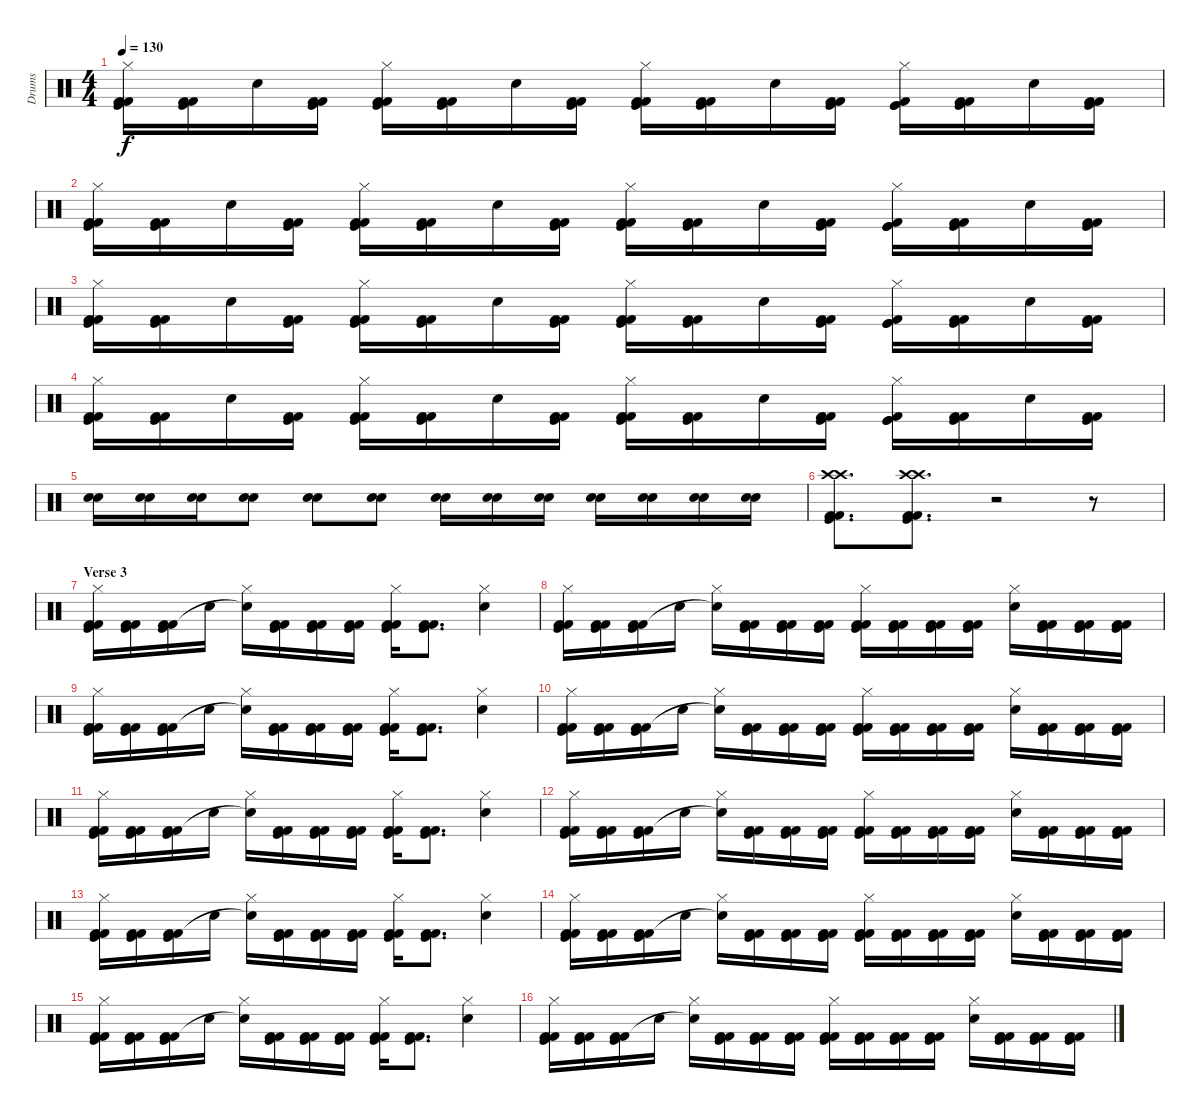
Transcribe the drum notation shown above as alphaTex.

\track ("Drums" "Drums") {instrument percussion}
\staff {score}
\articulation defaults
\ts (4 4)
\tempo 130
\clef neutral
\ks c
("Hi-Hat (closed)" "Kick (hit)" "Kick (hit) 2" "Kick (hit) 2").16{dy f} ("Kick (hit)" "Kick (hit) 2" "Kick (hit) 2").16 "Electric Snare (hit)".16 ("Kick (hit)" "Kick (hit) 2" "Kick (hit) 2").16 ("Hi-Hat (closed)" "Kick (hit)" "Kick (hit) 2" "Kick (hit) 2").16 ("Kick (hit)" "Kick (hit) 2" "Kick (hit) 2").16 "Electric Snare (hit)".16 ("Kick (hit)" "Kick (hit) 2" "Kick (hit) 2").16 ("Hi-Hat (closed)" "Kick (hit)" "Kick (hit) 2" "Kick (hit) 2").16 ("Kick (hit)" "Kick (hit) 2" "Kick (hit) 2").16 "Electric Snare (hit)".16 ("Kick (hit)" "Kick (hit) 2" "Kick (hit) 2").16 ("Hi-Hat (closed)" "Kick (hit)" "Kick (hit)" "Kick (hit) 2").16 ("Kick (hit)" "Kick (hit) 2" "Kick (hit) 2").16 "Electric Snare (hit)".16 ("Kick (hit)" "Kick (hit) 2" "Kick (hit) 2").16 |
("Hi-Hat (closed)" "Kick (hit)" "Kick (hit) 2" "Kick (hit) 2").16 ("Kick (hit)" "Kick (hit) 2" "Kick (hit) 2").16 "Electric Snare (hit)".16 ("Kick (hit)" "Kick (hit) 2" "Kick (hit) 2").16 ("Hi-Hat (closed)" "Kick (hit)" "Kick (hit) 2" "Kick (hit) 2").16 ("Kick (hit)" "Kick (hit) 2" "Kick (hit) 2").16 "Electric Snare (hit)".16 ("Kick (hit)" "Kick (hit) 2" "Kick (hit) 2").16 ("Hi-Hat (closed)" "Kick (hit)" "Kick (hit) 2" "Kick (hit) 2").16 ("Kick (hit)" "Kick (hit) 2" "Kick (hit) 2").16 "Electric Snare (hit)".16 ("Kick (hit)" "Kick (hit) 2" "Kick (hit) 2").16 ("Hi-Hat (closed)" "Kick (hit)" "Kick (hit)" "Kick (hit) 2").16 ("Kick (hit)" "Kick (hit) 2" "Kick (hit) 2").16 "Electric Snare (hit)".16 ("Kick (hit)" "Kick (hit) 2" "Kick (hit) 2").16 |
("Hi-Hat (closed)" "Kick (hit)" "Kick (hit) 2" "Kick (hit) 2").16 ("Kick (hit)" "Kick (hit) 2" "Kick (hit) 2").16 "Electric Snare (hit)".16 ("Kick (hit)" "Kick (hit) 2" "Kick (hit) 2").16 ("Hi-Hat (closed)" "Kick (hit)" "Kick (hit) 2" "Kick (hit) 2").16 ("Kick (hit)" "Kick (hit) 2" "Kick (hit) 2").16 "Electric Snare (hit)".16 ("Kick (hit)" "Kick (hit) 2" "Kick (hit) 2").16 ("Hi-Hat (closed)" "Kick (hit)" "Kick (hit) 2" "Kick (hit) 2").16 ("Kick (hit)" "Kick (hit) 2" "Kick (hit) 2").16 "Electric Snare (hit)".16 ("Kick (hit)" "Kick (hit) 2" "Kick (hit) 2").16 ("Hi-Hat (closed)" "Kick (hit)" "Kick (hit)" "Kick (hit) 2").16 ("Kick (hit)" "Kick (hit) 2" "Kick (hit) 2").16 "Electric Snare (hit)".16 ("Kick (hit)" "Kick (hit) 2" "Kick (hit) 2").16 |
("Hi-Hat (closed)" "Kick (hit)" "Kick (hit) 2" "Kick (hit) 2").16 ("Kick (hit)" "Kick (hit) 2" "Kick (hit) 2").16 "Electric Snare (hit)".16 ("Kick (hit)" "Kick (hit) 2" "Kick (hit) 2").16 ("Hi-Hat (closed)" "Kick (hit)" "Kick (hit) 2" "Kick (hit) 2").16 ("Kick (hit)" "Kick (hit) 2" "Kick (hit) 2").16 "Electric Snare (hit)".16 ("Kick (hit)" "Kick (hit) 2" "Kick (hit) 2").16 ("Hi-Hat (closed)" "Kick (hit)" "Kick (hit) 2" "Kick (hit) 2").16 ("Kick (hit)" "Kick (hit) 2" "Kick (hit) 2").16 "Electric Snare (hit)".16 ("Kick (hit)" "Kick (hit) 2" "Kick (hit) 2").16 ("Hi-Hat (closed)" "Kick (hit)" "Kick (hit)" "Kick (hit) 2").16 ("Kick (hit)" "Kick (hit) 2" "Kick (hit) 2").16 "Electric Snare (hit)".16 ("Kick (hit)" "Kick (hit) 2" "Kick (hit) 2").16 |
("Electric Snare (hit)" "Electric Snare (hit)").16 ("Electric Snare (hit)" "Electric Snare (hit)").16 ("Electric Snare (hit)" "Electric Snare (hit)").16 ("Electric Snare (hit)" "Electric Snare (hit)").8 ("Electric Snare (hit)" "Electric Snare (hit)").8 ("Electric Snare (hit)" "Electric Snare (hit)").8 ("Electric Snare (hit)" "Electric Snare (hit)").16 ("Electric Snare (hit)" "Electric Snare (hit)").16 ("Electric Snare (hit)" "Electric Snare (hit)").16 ("Electric Snare (hit)" "Electric Snare (hit)").16 ("Electric Snare (hit)" "Electric Snare (hit)").16 ("Electric Snare (hit)" "Electric Snare (hit)").16 ("Electric Snare (hit)" "Electric Snare (hit)").16 |
("Crash high (hit)" "Crash high (hit)" "Kick (hit)" "Kick (hit) 2" "Kick (hit) 2").8{d} ("Crash high (hit)" "Crash high (hit)" "Kick (hit)" "Kick (hit) 2" "Kick (hit) 2").8{d} r.2 r.8 |
\section ("" "Verse 3")
("Hi-Hat (closed)" "Kick (hit)" "Kick (hit) 2" "Kick (hit) 2").16 ("Kick (hit)" "Kick (hit) 2" "Kick (hit) 2").16 ("Kick (hit)" "Kick (hit) 2" "Kick (hit) 2").16 "Electric Snare (hit)".16 ("Hi-Hat (closed)" "Snare (hit)"{t}).16 ("Kick (hit)" "Kick (hit) 2" "Kick (hit) 2").16 ("Kick (hit)" "Kick (hit) 2" "Kick (hit) 2").16 ("Kick (hit)" "Kick (hit) 2" "Kick (hit) 2").16 ("Hi-Hat (closed)" "Kick (hit)" "Kick (hit) 2" "Kick (hit) 2").16 ("Kick (hit)" "Kick (hit) 2" "Kick (hit) 2").8{d} ("Hi-Hat (closed)" "Electric Snare (hit)").4 |
("Hi-Hat (closed)" "Kick (hit)" "Kick (hit) 2" "Kick (hit) 2").16 ("Kick (hit)" "Kick (hit) 2" "Kick (hit) 2").16 ("Kick (hit)" "Kick (hit) 2" "Kick (hit) 2").16 "Electric Snare (hit)".16 ("Hi-Hat (closed)" "Snare (hit)"{t}).16 ("Kick (hit)" "Kick (hit) 2" "Kick (hit) 2").16 ("Kick (hit)" "Kick (hit) 2" "Kick (hit) 2").16 ("Kick (hit)" "Kick (hit) 2" "Kick (hit) 2").16 ("Hi-Hat (closed)" "Kick (hit)" "Kick (hit) 2" "Kick (hit) 2").16 ("Kick (hit)" "Kick (hit) 2" "Kick (hit) 2").16 ("Kick (hit)" "Kick (hit) 2" "Kick (hit) 2").16 ("Kick (hit)" "Kick (hit) 2" "Kick (hit) 2").16 ("Hi-Hat (closed)" "Electric Snare (hit)").16 ("Kick (hit)" "Kick (hit) 2" "Kick (hit) 2").16 ("Kick (hit)" "Kick (hit) 2" "Kick (hit) 2").16 ("Kick (hit)" "Kick (hit) 2" "Kick (hit) 2").16 |
("Hi-Hat (closed)" "Kick (hit)" "Kick (hit) 2" "Kick (hit) 2").16 ("Kick (hit)" "Kick (hit) 2" "Kick (hit) 2").16 ("Kick (hit)" "Kick (hit) 2" "Kick (hit) 2").16 "Electric Snare (hit)".16 ("Hi-Hat (closed)" "Snare (hit)"{t}).16 ("Kick (hit)" "Kick (hit) 2" "Kick (hit) 2").16 ("Kick (hit)" "Kick (hit) 2" "Kick (hit) 2").16 ("Kick (hit)" "Kick (hit) 2" "Kick (hit) 2").16 ("Hi-Hat (closed)" "Kick (hit)" "Kick (hit) 2" "Kick (hit) 2").16 ("Kick (hit)" "Kick (hit) 2" "Kick (hit) 2").8{d} ("Hi-Hat (closed)" "Electric Snare (hit)").4 |
("Hi-Hat (closed)" "Kick (hit)" "Kick (hit) 2" "Kick (hit) 2").16 ("Kick (hit)" "Kick (hit) 2" "Kick (hit) 2").16 ("Kick (hit)" "Kick (hit) 2" "Kick (hit) 2").16 "Electric Snare (hit)".16 ("Hi-Hat (closed)" "Snare (hit)"{t}).16 ("Kick (hit)" "Kick (hit) 2" "Kick (hit) 2").16 ("Kick (hit)" "Kick (hit) 2" "Kick (hit) 2").16 ("Kick (hit)" "Kick (hit) 2" "Kick (hit) 2").16 ("Hi-Hat (closed)" "Kick (hit)" "Kick (hit) 2" "Kick (hit) 2").16 ("Kick (hit)" "Kick (hit) 2" "Kick (hit) 2").16 ("Kick (hit)" "Kick (hit) 2" "Kick (hit) 2").16 ("Kick (hit)" "Kick (hit) 2" "Kick (hit) 2").16 ("Hi-Hat (closed)" "Electric Snare (hit)").16 ("Kick (hit)" "Kick (hit) 2" "Kick (hit) 2").16 ("Kick (hit)" "Kick (hit) 2" "Kick (hit) 2").16 ("Kick (hit)" "Kick (hit) 2" "Kick (hit) 2").16 |
("Hi-Hat (closed)" "Kick (hit)" "Kick (hit) 2" "Kick (hit) 2").16 ("Kick (hit)" "Kick (hit) 2" "Kick (hit) 2").16 ("Kick (hit)" "Kick (hit) 2" "Kick (hit) 2").16 "Electric Snare (hit)".16 ("Hi-Hat (closed)" "Snare (hit)"{t}).16 ("Kick (hit)" "Kick (hit) 2" "Kick (hit) 2").16 ("Kick (hit)" "Kick (hit) 2" "Kick (hit) 2").16 ("Kick (hit)" "Kick (hit) 2" "Kick (hit) 2").16 ("Hi-Hat (closed)" "Kick (hit)" "Kick (hit) 2" "Kick (hit) 2").16 ("Kick (hit)" "Kick (hit) 2" "Kick (hit) 2").8{d} ("Hi-Hat (closed)" "Electric Snare (hit)").4 |
("Hi-Hat (closed)" "Kick (hit)" "Kick (hit) 2" "Kick (hit) 2").16 ("Kick (hit)" "Kick (hit) 2" "Kick (hit) 2").16 ("Kick (hit)" "Kick (hit) 2" "Kick (hit) 2").16 "Electric Snare (hit)".16 ("Hi-Hat (closed)" "Snare (hit)"{t}).16 ("Kick (hit)" "Kick (hit) 2" "Kick (hit) 2").16 ("Kick (hit)" "Kick (hit) 2" "Kick (hit) 2").16 ("Kick (hit)" "Kick (hit) 2" "Kick (hit) 2").16 ("Hi-Hat (closed)" "Kick (hit)" "Kick (hit) 2" "Kick (hit) 2").16 ("Kick (hit)" "Kick (hit) 2" "Kick (hit) 2").16 ("Kick (hit)" "Kick (hit) 2" "Kick (hit) 2").16 ("Kick (hit)" "Kick (hit) 2" "Kick (hit) 2").16 ("Hi-Hat (closed)" "Electric Snare (hit)").16 ("Kick (hit)" "Kick (hit) 2" "Kick (hit) 2").16 ("Kick (hit)" "Kick (hit) 2" "Kick (hit) 2").16 ("Kick (hit)" "Kick (hit) 2" "Kick (hit) 2").16 |
("Hi-Hat (closed)" "Kick (hit)" "Kick (hit) 2" "Kick (hit) 2").16 ("Kick (hit)" "Kick (hit) 2" "Kick (hit) 2").16 ("Kick (hit)" "Kick (hit) 2" "Kick (hit) 2").16 "Electric Snare (hit)".16 ("Hi-Hat (closed)" "Snare (hit)"{t}).16 ("Kick (hit)" "Kick (hit) 2" "Kick (hit) 2").16 ("Kick (hit)" "Kick (hit) 2" "Kick (hit) 2").16 ("Kick (hit)" "Kick (hit) 2" "Kick (hit) 2").16 ("Hi-Hat (closed)" "Kick (hit)" "Kick (hit) 2" "Kick (hit) 2").16 ("Kick (hit)" "Kick (hit) 2" "Kick (hit) 2").8{d} ("Hi-Hat (closed)" "Electric Snare (hit)").4 |
("Hi-Hat (closed)" "Kick (hit)" "Kick (hit) 2" "Kick (hit) 2").16 ("Kick (hit)" "Kick (hit) 2" "Kick (hit) 2").16 ("Kick (hit)" "Kick (hit) 2" "Kick (hit) 2").16 "Electric Snare (hit)".16 ("Hi-Hat (closed)" "Snare (hit)"{t}).16 ("Kick (hit)" "Kick (hit) 2" "Kick (hit) 2").16 ("Kick (hit)" "Kick (hit) 2" "Kick (hit) 2").16 ("Kick (hit)" "Kick (hit) 2" "Kick (hit) 2").16 ("Hi-Hat (closed)" "Kick (hit)" "Kick (hit) 2" "Kick (hit) 2").16 ("Kick (hit)" "Kick (hit) 2" "Kick (hit) 2").16 ("Kick (hit)" "Kick (hit) 2" "Kick (hit) 2").16 ("Kick (hit)" "Kick (hit) 2" "Kick (hit) 2").16 ("Hi-Hat (closed)" "Electric Snare (hit)").16 ("Kick (hit)" "Kick (hit) 2" "Kick (hit) 2").16 ("Kick (hit)" "Kick (hit) 2" "Kick (hit) 2").16 ("Kick (hit)" "Kick (hit) 2" "Kick (hit) 2").16 |
("Hi-Hat (closed)" "Kick (hit)" "Kick (hit) 2" "Kick (hit) 2").16 ("Kick (hit)" "Kick (hit) 2" "Kick (hit) 2").16 ("Kick (hit)" "Kick (hit) 2" "Kick (hit) 2").16 "Electric Snare (hit)".16 ("Hi-Hat (closed)" "Snare (hit)"{t}).16 ("Kick (hit)" "Kick (hit) 2" "Kick (hit) 2").16 ("Kick (hit)" "Kick (hit) 2" "Kick (hit) 2").16 ("Kick (hit)" "Kick (hit) 2" "Kick (hit) 2").16 ("Hi-Hat (closed)" "Kick (hit)" "Kick (hit) 2" "Kick (hit) 2").16 ("Kick (hit)" "Kick (hit) 2" "Kick (hit) 2").8{d} ("Hi-Hat (closed)" "Electric Snare (hit)").4 |
("Hi-Hat (closed)" "Kick (hit)" "Kick (hit) 2" "Kick (hit) 2").16 ("Kick (hit)" "Kick (hit) 2" "Kick (hit) 2").16 ("Kick (hit)" "Kick (hit) 2" "Kick (hit) 2").16 "Electric Snare (hit)".16 ("Hi-Hat (closed)" "Snare (hit)"{t}).16 ("Kick (hit)" "Kick (hit) 2" "Kick (hit) 2").16 ("Kick (hit)" "Kick (hit) 2" "Kick (hit) 2").16 ("Kick (hit)" "Kick (hit) 2" "Kick (hit) 2").16 ("Hi-Hat (closed)" "Kick (hit)" "Kick (hit) 2" "Kick (hit) 2").16 ("Kick (hit)" "Kick (hit) 2" "Kick (hit) 2").16 ("Kick (hit)" "Kick (hit) 2" "Kick (hit) 2").16 ("Kick (hit)" "Kick (hit) 2" "Kick (hit) 2").16 ("Hi-Hat (closed)" "Electric Snare (hit)").16 ("Kick (hit)" "Kick (hit) 2" "Kick (hit) 2").16 ("Kick (hit)" "Kick (hit) 2" "Kick (hit) 2").16 ("Kick (hit)" "Kick (hit) 2" "Kick (hit) 2").16
